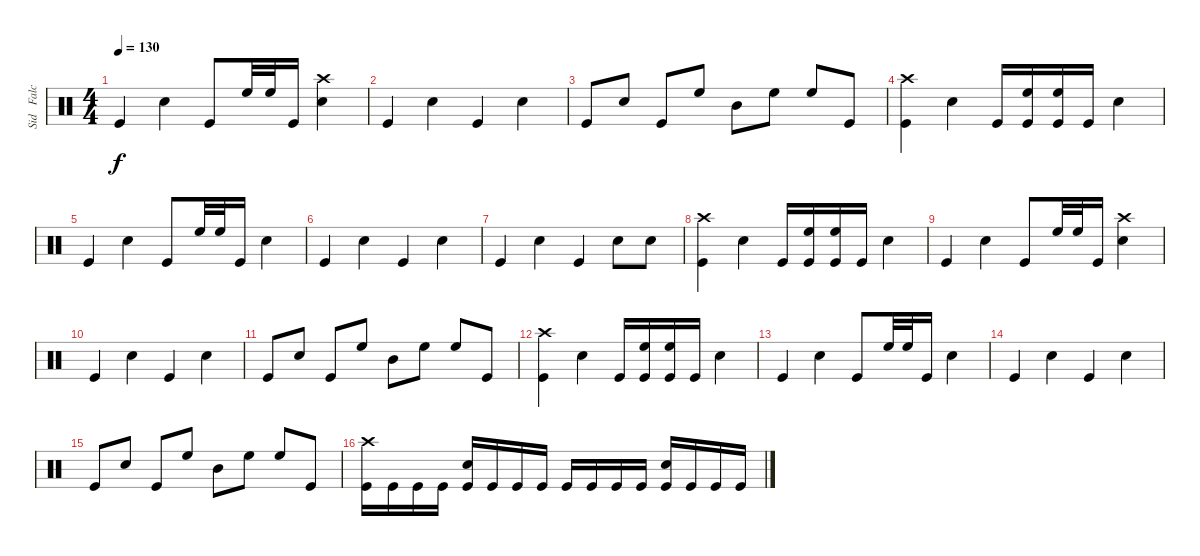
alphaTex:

\track ("Sid   Falck  - Drums" "Sid   Falc") {instrument percussion}
\staff {score}
\articulation defaults
\ts (4 4)
\tempo 130
\clef neutral
\ks c "Kick (hit)".4{dy f} "Electric Snare (hit)".4 "Kick (hit)".8 "High Floor Tom (hit)".32 "High Floor Tom (hit)".32 "Kick (hit)".16
("Crash high (hit)" "Electric Snare (hit)").4 |
"Kick (hit)".4 "Electric Snare (hit)".4 "Kick (hit)".4 "Electric Snare (hit)".4 |
"Kick (hit)".8 "Electric Snare (hit)".8 "Kick (hit)".8 "High Floor Tom (hit)".8 "Mid Tom (hit)".8 "High Floor Tom (hit)".8 "High Floor Tom (hit)".8 "Kick (hit)".8 |
("Crash high (hit)" "Kick (hit)").4 "Electric Snare (hit)".4 "Kick (hit)".16 ("High Floor Tom (hit)" "Kick (hit)").16 ("High Floor Tom (hit)" "Kick (hit)").16 "Kick (hit)".16 "Electric Snare (hit)".4 |
"Kick (hit)".4 "Electric Snare (hit)".4 "Kick (hit)".8 "High Floor Tom (hit)".32 "High Floor Tom (hit)".32 "Kick (hit)".16 "Electric Snare (hit)".4 |
"Kick (hit)".4 "Electric Snare (hit)".4 "Kick (hit)".4 "Electric Snare (hit)".4 |
"Kick (hit)".4 "Electric Snare (hit)".4 "Kick (hit)".4 "Electric Snare (hit)".8 "Electric Snare (hit)".8 |
("Crash high (hit)" "Kick (hit)").4 "Electric Snare (hit)".4 "Kick (hit)".16 ("High Floor Tom (hit)" "Kick (hit)").16 ("High Floor Tom (hit)" "Kick (hit)").16 "Kick (hit)".16 "Electric Snare (hit)".4 |
"Kick (hit)".4 "Electric Snare (hit)".4 "Kick (hit)".8 "High Floor Tom (hit)".32 "High Floor Tom (hit)".32 "Kick (hit)".16 ("Crash high (hit)" "Electric Snare (hit)").4 |
"Kick (hit)".4 "Electric Snare (hit)".4 "Kick (hit)".4 "Electric Snare (hit)".4 |
"Kick (hit)".8 "Electric Snare (hit)".8 "Kick (hit)".8 "High Floor Tom (hit)".8 "Mid Tom (hit)".8 "High Floor Tom (hit)".8 "High Floor Tom (hit)".8 "Kick (hit)".8 |
("Crash high (hit)" "Kick (hit)").4 "Electric Snare (hit)".4 "Kick (hit)".16 ("High Floor Tom (hit)" "Kick (hit)").16 ("High Floor Tom (hit)" "Kick (hit)").16 "Kick (hit)".16 "Electric Snare (hit)".4 |
"Kick (hit)".4 "Electric Snare (hit)".4 "Kick (hit)".8 "High Floor Tom (hit)".32 "High Floor Tom (hit)".32 "Kick (hit)".16 "Electric Snare (hit)".4 |
"Kick (hit)".4 "Electric Snare (hit)".4 "Kick (hit)".4 "Electric Snare (hit)".4 |
"Kick (hit)".8 "Electric Snare (hit)".8 "Kick (hit)".8 "High Floor Tom (hit)".8 "Mid Tom (hit)".8 "High Floor Tom (hit)".8 "High Floor Tom (hit)".8 "Kick (hit)".8 |
("Crash high (hit)" "Kick (hit)").16 "Kick (hit)".16 "Kick (hit)".16 "Kick (hit)".16 ("Electric Snare (hit)" "Kick (hit)").16 "Kick (hit)".16 "Kick (hit)".16 "Kick (hit)".16 "Kick (hit)".16 "Kick (hit)".16 "Kick (hit)".16 "Kick (hit)".16 ("Electric Snare (hit)" "Kick (hit)").16 "Kick (hit)".16 "Kick (hit)".16 "Kick (hit)".16
